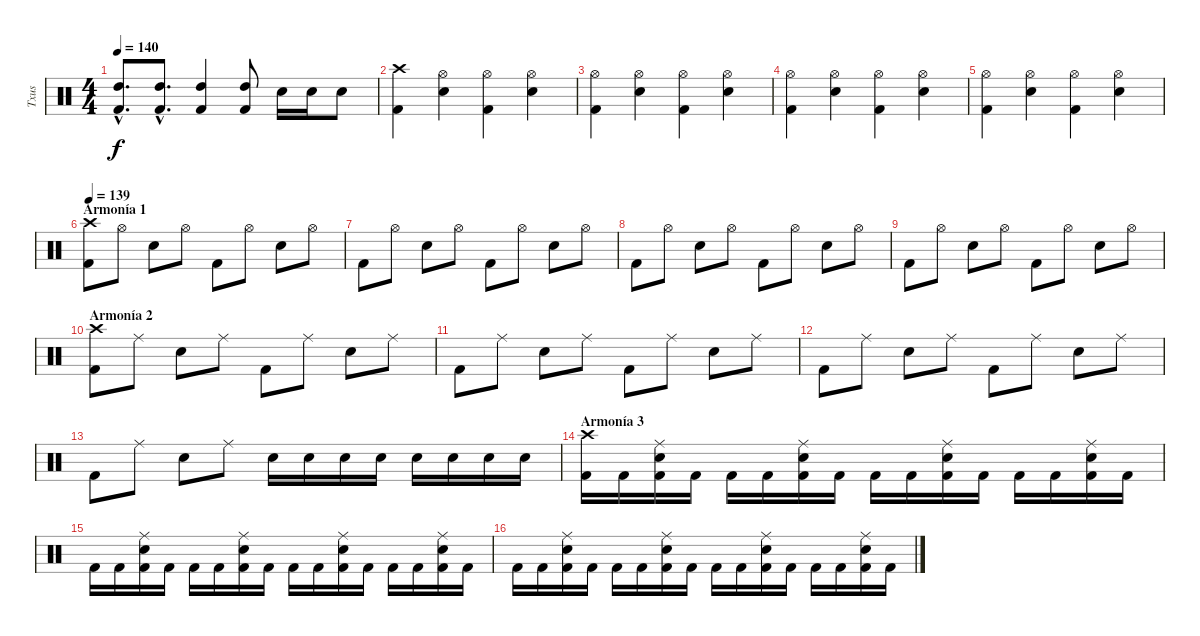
\track ("Txus" "Txus") {instrument percussion}
\staff {score}
\articulation defaults
\ts (4 4)
\tempo 140
\clef neutral
\ks c
("Kick (hit) 2"{hac} "High Tom (hit)"{hac}).8{d dy f} ("Kick (hit) 2"{hac} "High Tom (hit)"{hac}).8{d} ("Kick (hit) 2" "High Tom (hit)").4 ("Kick (hit) 2" "High Tom (hit)").8 "Electric Snare (hit)".16 "Electric Snare (hit)".16 "Electric Snare (hit)".8 |
("Kick (hit) 2" "Crash high (hit)").4 ("Hi-Hat (open)" "Electric Snare (hit)").4 ("Kick (hit) 2" "Hi-Hat (open)").4 ("Hi-Hat (open)" "Electric Snare (hit)").4 |
("Kick (hit) 2" "Hi-Hat (open)").4 ("Hi-Hat (open)" "Electric Snare (hit)").4 ("Kick (hit) 2" "Hi-Hat (open)").4 ("Hi-Hat (open)" "Electric Snare (hit)").4 |
("Kick (hit) 2" "Hi-Hat (open)").4 ("Hi-Hat (open)" "Electric Snare (hit)").4 ("Kick (hit) 2" "Hi-Hat (open)").4 ("Hi-Hat (open)" "Electric Snare (hit)").4 |
("Kick (hit) 2" "Hi-Hat (open)").4 ("Hi-Hat (open)" "Electric Snare (hit)").4 ("Kick (hit) 2" "Hi-Hat (open)").4 ("Hi-Hat (open)" "Electric Snare (hit)").4 |
\section ("" "Armonía 1")
\tempo 139
("Kick (hit) 2" "Crash high (hit)").8 "Hi-Hat (open)".8 "Electric Snare (hit)".8 "Hi-Hat (open)".8 "Kick (hit) 2".8 "Hi-Hat (open)".8 "Electric Snare (hit)".8 "Hi-Hat (open)".8 |
"Kick (hit) 2".8 "Hi-Hat (open)".8 "Electric Snare (hit)".8 "Hi-Hat (open)".8 "Kick (hit) 2".8 "Hi-Hat (open)".8 "Electric Snare (hit)".8 "Hi-Hat (open)".8 |
"Kick (hit) 2".8 "Hi-Hat (open)".8 "Electric Snare (hit)".8 "Hi-Hat (open)".8 "Kick (hit) 2".8 "Hi-Hat (open)".8 "Electric Snare (hit)".8 "Hi-Hat (open)".8 |
"Kick (hit) 2".8 "Hi-Hat (open)".8 "Electric Snare (hit)".8 "Hi-Hat (open)".8 "Kick (hit) 2".8 "Hi-Hat (open)".8 "Electric Snare (hit)".8 "Hi-Hat (open)".8 |
\section ("" "Armonía 2")
("Kick (hit) 2" "Crash high (hit)").8 "Ride (middle)".8 "Electric Snare (hit)".8 "Ride (middle)".8 "Kick (hit) 2".8 "Ride (middle)".8 "Electric Snare (hit)".8 "Ride (middle)".8 |
"Kick (hit) 2".8 "Ride (middle)".8 "Electric Snare (hit)".8 "Ride (middle)".8 "Kick (hit) 2".8 "Ride (middle)".8 "Electric Snare (hit)".8 "Ride (middle)".8 |
"Kick (hit) 2".8 "Ride (middle)".8 "Electric Snare (hit)".8 "Ride (middle)".8 "Kick (hit) 2".8 "Ride (middle)".8 "Electric Snare (hit)".8 "Ride (middle)".8 |
"Kick (hit) 2".8 "Ride (middle)".8 "Electric Snare (hit)".8 "Ride (middle)".8 "Electric Snare (hit)".16 "Electric Snare (hit)".16 "Electric Snare (hit)".16 "Electric Snare (hit)".16 "Electric Snare (hit)".16 "Electric Snare (hit)".16 "Electric Snare (hit)".16 "Electric Snare (hit)".16 |
\section ("" "Armonía 3")
("Kick (hit) 2" "Crash high (hit)").16 "Kick (hit) 2".16 ("Kick (hit) 2" "Electric Snare (hit)" "Ride (middle)").16 "Kick (hit) 2".16 "Kick (hit) 2".16 "Kick (hit) 2".16 ("Kick (hit) 2" "Electric Snare (hit)" "Ride (middle)").16 "Kick (hit) 2".16 "Kick (hit) 2".16 "Kick (hit) 2".16 ("Kick (hit) 2" "Electric Snare (hit)" "Ride (middle)").16 "Kick (hit) 2".16 "Kick (hit) 2".16 "Kick (hit) 2".16 ("Kick (hit) 2" "Electric Snare (hit)" "Ride (middle)").16 "Kick (hit) 2".16 |
"Kick (hit) 2".16 "Kick (hit) 2".16 ("Kick (hit) 2" "Electric Snare (hit)" "Ride (middle)").16 "Kick (hit) 2".16 "Kick (hit) 2".16 "Kick (hit) 2".16 ("Kick (hit) 2" "Electric Snare (hit)" "Ride (middle)").16 "Kick (hit) 2".16 "Kick (hit) 2".16 "Kick (hit) 2".16 ("Kick (hit) 2" "Electric Snare (hit)" "Ride (middle)").16 "Kick (hit) 2".16 "Kick (hit) 2".16 "Kick (hit) 2".16 ("Kick (hit) 2" "Electric Snare (hit)" "Ride (middle)").16 "Kick (hit) 2".16 |
"Kick (hit) 2".16 "Kick (hit) 2".16 ("Kick (hit) 2" "Electric Snare (hit)" "Ride (middle)").16 "Kick (hit) 2".16 "Kick (hit) 2".16 "Kick (hit) 2".16 ("Kick (hit) 2" "Electric Snare (hit)" "Ride (middle)").16 "Kick (hit) 2".16 "Kick (hit) 2".16 "Kick (hit) 2".16 ("Kick (hit) 2" "Electric Snare (hit)" "Ride (middle)").16 "Kick (hit) 2".16 "Kick (hit) 2".16 "Kick (hit) 2".16 ("Kick (hit) 2" "Electric Snare (hit)" "Ride (middle)").16 "Kick (hit) 2".16
